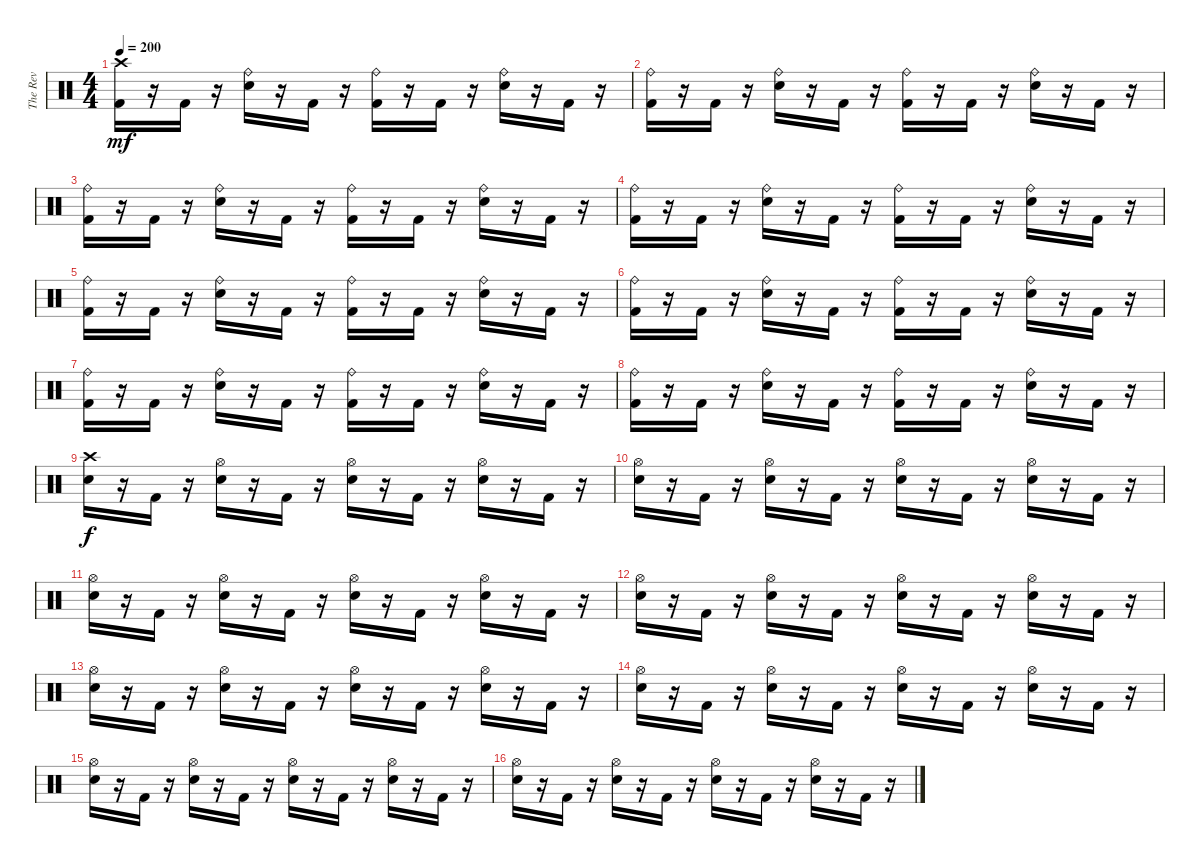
\track ("The Rev" "The Rev") {instrument percussion}
\staff {score}
\articulation defaults
\ts (4 4)
\tempo 200
\clef neutral
\ks c
("Crash high (hit)" "Kick (hit) 2").16{dy mf} r.16 "Kick (hit) 2".16 r.16 ("Ride (bell)" "Electric Snare (hit)").16 r.16 "Kick (hit) 2".16 r.16 ("Ride (bell)" "Kick (hit) 2").16 r.16 "Kick (hit) 2".16 r.16 ("Ride (bell)" "Electric Snare (hit)").16 r.16 "Kick (hit) 2".16 r.16 |
("Ride (bell)" "Kick (hit) 2").16 r.16 "Kick (hit) 2".16 r.16 ("Ride (bell)" "Electric Snare (hit)").16 r.16 "Kick (hit) 2".16 r.16 ("Ride (bell)" "Kick (hit) 2").16 r.16 "Kick (hit) 2".16 r.16 ("Ride (bell)" "Electric Snare (hit)").16 r.16 "Kick (hit) 2".16 r.16 |
("Ride (bell)" "Kick (hit) 2").16 r.16 "Kick (hit) 2".16 r.16 ("Ride (bell)" "Electric Snare (hit)").16 r.16 "Kick (hit) 2".16 r.16 ("Ride (bell)" "Kick (hit) 2").16 r.16 "Kick (hit) 2".16 r.16 ("Ride (bell)" "Electric Snare (hit)").16 r.16 "Kick (hit) 2".16 r.16 |
("Ride (bell)" "Kick (hit) 2").16 r.16 "Kick (hit) 2".16 r.16 ("Ride (bell)" "Electric Snare (hit)").16 r.16 "Kick (hit) 2".16 r.16 ("Ride (bell)" "Kick (hit) 2").16 r.16 "Kick (hit) 2".16 r.16 ("Ride (bell)" "Electric Snare (hit)").16 r.16 "Kick (hit) 2".16 r.16 |
("Ride (bell)" "Kick (hit) 2").16 r.16 "Kick (hit) 2".16 r.16 ("Ride (bell)" "Electric Snare (hit)").16 r.16 "Kick (hit) 2".16 r.16 ("Ride (bell)" "Kick (hit) 2").16 r.16 "Kick (hit) 2".16 r.16 ("Ride (bell)" "Electric Snare (hit)").16 r.16 "Kick (hit) 2".16 r.16 |
("Ride (bell)" "Kick (hit) 2").16 r.16 "Kick (hit) 2".16 r.16 ("Ride (bell)" "Electric Snare (hit)").16 r.16 "Kick (hit) 2".16 r.16 ("Ride (bell)" "Kick (hit) 2").16 r.16 "Kick (hit) 2".16 r.16 ("Ride (bell)" "Electric Snare (hit)").16 r.16 "Kick (hit) 2".16 r.16 |
("Ride (bell)" "Kick (hit) 2").16 r.16 "Kick (hit) 2".16 r.16 ("Ride (bell)" "Electric Snare (hit)").16 r.16 "Kick (hit) 2".16 r.16 ("Ride (bell)" "Kick (hit) 2").16 r.16 "Kick (hit) 2".16 r.16 ("Ride (bell)" "Electric Snare (hit)").16 r.16 "Kick (hit) 2".16 r.16 |
("Ride (bell)" "Kick (hit) 2").16 r.16 "Kick (hit) 2".16 r.16 ("Ride (bell)" "Electric Snare (hit)").16 r.16 "Kick (hit) 2".16 r.16 ("Ride (bell)" "Kick (hit) 2").16 r.16 "Kick (hit) 2".16 r.16 ("Ride (bell)" "Electric Snare (hit)").16 r.16 "Kick (hit) 2".16 r.16 |
("Crash high (hit)" "Electric Snare (hit)").16{dy f} r.16 "Kick (hit) 2".16 r.16 ("Hi-Hat (open)" "Electric Snare (hit)").16 r.16 "Kick (hit) 2".16 r.16 ("Hi-Hat (open)" "Electric Snare (hit)").16 r.16 "Kick (hit) 2".16 r.16 ("Hi-Hat (open)" "Electric Snare (hit)").16 r.16 "Kick (hit) 2".16 r.16 |
("Hi-Hat (open)" "Electric Snare (hit)").16 r.16 "Kick (hit) 2".16 r.16 ("Hi-Hat (open)" "Electric Snare (hit)").16 r.16 "Kick (hit) 2".16 r.16 ("Hi-Hat (open)" "Electric Snare (hit)").16 r.16 "Kick (hit) 2".16 r.16 ("Hi-Hat (open)" "Electric Snare (hit)").16 r.16 "Kick (hit) 2".16 r.16 |
("Hi-Hat (open)" "Electric Snare (hit)").16 r.16 "Kick (hit) 2".16 r.16 ("Hi-Hat (open)" "Electric Snare (hit)").16 r.16 "Kick (hit) 2".16 r.16 ("Hi-Hat (open)" "Electric Snare (hit)").16 r.16 "Kick (hit) 2".16 r.16 ("Hi-Hat (open)" "Electric Snare (hit)").16 r.16 "Kick (hit) 2".16 r.16 |
("Hi-Hat (open)" "Electric Snare (hit)").16 r.16 "Kick (hit) 2".16 r.16 ("Hi-Hat (open)" "Electric Snare (hit)").16 r.16 "Kick (hit) 2".16 r.16 ("Hi-Hat (open)" "Electric Snare (hit)").16 r.16 "Kick (hit) 2".16 r.16 ("Hi-Hat (open)" "Electric Snare (hit)").16 r.16 "Kick (hit) 2".16 r.16 |
("Hi-Hat (open)" "Electric Snare (hit)").16 r.16 "Kick (hit) 2".16 r.16 ("Hi-Hat (open)" "Electric Snare (hit)").16 r.16 "Kick (hit) 2".16 r.16 ("Hi-Hat (open)" "Electric Snare (hit)").16 r.16 "Kick (hit) 2".16 r.16 ("Hi-Hat (open)" "Electric Snare (hit)").16 r.16 "Kick (hit) 2".16 r.16 |
("Hi-Hat (open)" "Electric Snare (hit)").16 r.16 "Kick (hit) 2".16 r.16 ("Hi-Hat (open)" "Electric Snare (hit)").16 r.16 "Kick (hit) 2".16 r.16 ("Hi-Hat (open)" "Electric Snare (hit)").16 r.16 "Kick (hit) 2".16 r.16 ("Hi-Hat (open)" "Electric Snare (hit)").16 r.16 "Kick (hit) 2".16 r.16 |
("Hi-Hat (open)" "Electric Snare (hit)").16 r.16 "Kick (hit) 2".16 r.16 ("Hi-Hat (open)" "Electric Snare (hit)").16 r.16 "Kick (hit) 2".16 r.16 ("Hi-Hat (open)" "Electric Snare (hit)").16 r.16 "Kick (hit) 2".16 r.16 ("Hi-Hat (open)" "Electric Snare (hit)").16 r.16 "Kick (hit) 2".16 r.16 |
("Hi-Hat (open)" "Electric Snare (hit)").16 r.16 "Kick (hit) 2".16 r.16 ("Hi-Hat (open)" "Electric Snare (hit)").16 r.16 "Kick (hit) 2".16 r.16 ("Hi-Hat (open)" "Electric Snare (hit)").16 r.16 "Kick (hit) 2".16 r.16 ("Hi-Hat (open)" "Electric Snare (hit)").16 r.16 "Kick (hit) 2".16 r.16
